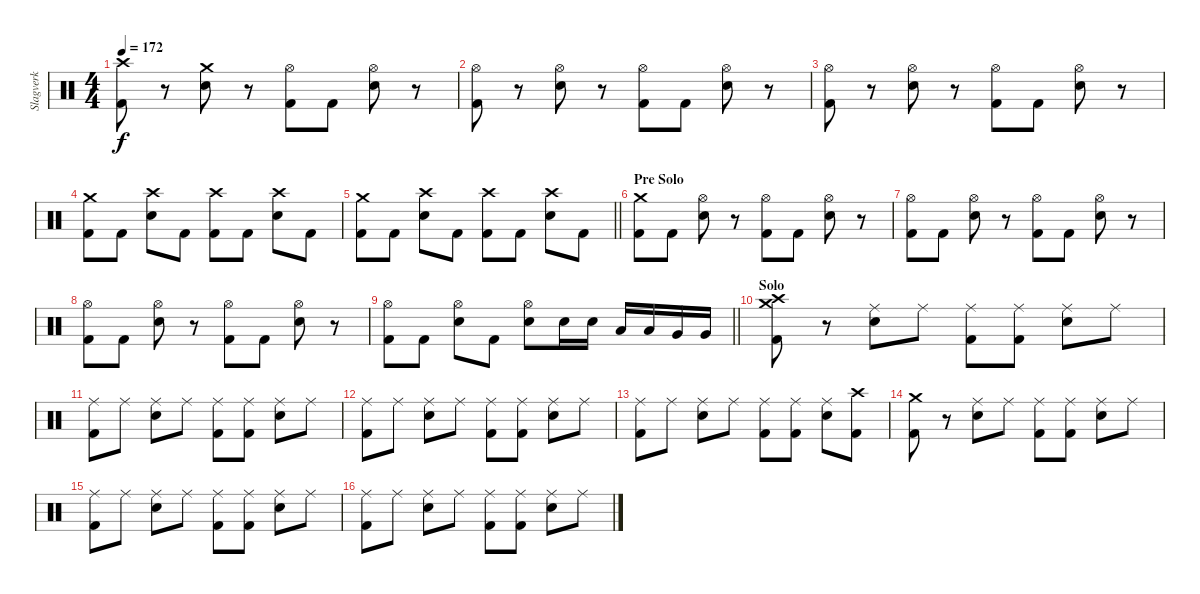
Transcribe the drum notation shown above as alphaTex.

\track ("Slagverk" "Slagverk") {instrument percussion}
\staff {score}
\articulation defaults
\ts (4 4)
\tempo 172
\clef neutral
\ks c
("Crash high (hit)" "Kick (hit) 2").8{dy f} r.8 ("Crash medium (hit)" "Electric Snare (hit)").8 r.8 ("Hi-Hat (open)" "Kick (hit) 2").8 "Kick (hit) 2".8 ("Hi-Hat (open)" "Electric Snare (hit)").8 r.8 |
("Hi-Hat (open)" "Kick (hit) 2").8 r.8 ("Hi-Hat (open)" "Electric Snare (hit)").8 r.8 ("Hi-Hat (open)" "Kick (hit) 2").8 "Kick (hit) 2".8 ("Hi-Hat (open)" "Electric Snare (hit)").8 r.8 |
("Hi-Hat (open)" "Kick (hit) 2").8 r.8 ("Hi-Hat (open)" "Electric Snare (hit)").8 r.8 ("Hi-Hat (open)" "Kick (hit) 2").8 "Kick (hit) 2".8 ("Hi-Hat (open)" "Electric Snare (hit)").8 r.8 |
("Crash medium (hit)" "Kick (hit) 2").8 "Kick (hit) 2".8 ("Crash high (hit)" "Electric Snare (hit)").8 "Kick (hit) 2".8 ("Crash high (hit)" "Kick (hit) 2").8 "Kick (hit) 2".8 ("Crash high (hit)" "Electric Snare (hit)").8 "Kick (hit) 2".8 |
\barLineRight lightlight
("Crash medium (hit)" "Kick (hit) 2").8 "Kick (hit) 2".8 ("Crash high (hit)" "Electric Snare (hit)").8 "Kick (hit) 2".8 ("Crash high (hit)" "Kick (hit) 2").8 "Kick (hit) 2".8 ("Crash high (hit)" "Electric Snare (hit)").8 "Kick (hit) 2".8 |
\section ("" "Pre Solo")
("Crash medium (hit)" "Kick (hit) 2").8 "Kick (hit) 2".8 ("Hi-Hat (open)" "Electric Snare (hit)").8 r.8 ("Hi-Hat (open)" "Kick (hit) 2").8 "Kick (hit) 2".8 ("Hi-Hat (open)" "Electric Snare (hit)").8 r.8 |
("Hi-Hat (open)" "Kick (hit) 2").8 "Kick (hit) 2".8 ("Hi-Hat (open)" "Electric Snare (hit)").8 r.8 ("Hi-Hat (open)" "Kick (hit) 2").8 "Kick (hit) 2".8 ("Hi-Hat (open)" "Electric Snare (hit)").8 r.8 |
("Hi-Hat (open)" "Kick (hit) 2").8 "Kick (hit) 2".8 ("Hi-Hat (open)" "Electric Snare (hit)").8 r.8 ("Hi-Hat (open)" "Kick (hit) 2").8 "Kick (hit) 2".8 ("Hi-Hat (open)" "Electric Snare (hit)").8 r.8 |
\barLineRight lightlight
("Hi-Hat (open)" "Kick (hit) 2").8 "Kick (hit) 2".8 ("Hi-Hat (open)" "Electric Snare (hit)").8 "Kick (hit) 2".8 ("Hi-Hat (open)" "Electric Snare (hit)").8 "Electric Snare (hit)".16 "Electric Snare (hit)".16 "Low Tom (hit)".16 "Low Tom (hit)".16 "Very Low Tom (hit)".16 "Very Low Tom (hit)".16 |
\section ("" "Solo")
("Crash high (hit)" "Kick (hit) 2" "Crash medium (hit)").8 r.8 ("Ride (middle)" "Electric Snare (hit)").8 "Ride (middle)".8 ("Ride (middle)" "Kick (hit) 2").8 ("Ride (middle)" "Kick (hit) 2").8 ("Ride (middle)" "Electric Snare (hit)").8 "Ride (middle)".8 |
("Ride (middle)" "Kick (hit) 2").8 "Ride (middle)".8 ("Ride (middle)" "Electric Snare (hit)").8 "Ride (middle)".8 ("Ride (middle)" "Kick (hit) 2").8 ("Ride (middle)" "Kick (hit) 2").8 ("Ride (middle)" "Electric Snare (hit)").8 "Ride (middle)".8 |
("Ride (middle)" "Kick (hit) 2").8 "Ride (middle)".8 ("Ride (middle)" "Electric Snare (hit)").8 "Ride (middle)".8 ("Ride (middle)" "Kick (hit) 2").8 ("Ride (middle)" "Kick (hit) 2").8 ("Ride (middle)" "Electric Snare (hit)").8 "Ride (middle)".8 |
("Ride (middle)" "Kick (hit) 2").8 "Ride (middle)".8 ("Ride (middle)" "Electric Snare (hit)").8 "Ride (middle)".8 ("Ride (middle)" "Kick (hit) 2").8 ("Ride (middle)" "Kick (hit) 2").8 ("Ride (middle)" "Electric Snare (hit)").8 ("Crash high (hit)" "Kick (hit) 2").8 |
("Crash medium (hit)" "Kick (hit) 2").8 r.8 ("Ride (middle)" "Electric Snare (hit)").8 "Ride (middle)".8 ("Ride (middle)" "Kick (hit) 2").8 ("Ride (middle)" "Kick (hit) 2").8 ("Ride (middle)" "Electric Snare (hit)").8 "Ride (middle)".8 |
("Ride (middle)" "Kick (hit) 2").8 "Ride (middle)".8 ("Ride (middle)" "Electric Snare (hit)").8 "Ride (middle)".8 ("Ride (middle)" "Kick (hit) 2").8 ("Ride (middle)" "Kick (hit) 2").8 ("Ride (middle)" "Electric Snare (hit)").8 "Ride (middle)".8 |
("Ride (middle)" "Kick (hit) 2").8 "Ride (middle)".8 ("Ride (middle)" "Electric Snare (hit)").8 "Ride (middle)".8 ("Ride (middle)" "Kick (hit) 2").8 ("Ride (middle)" "Kick (hit) 2").8 ("Ride (middle)" "Electric Snare (hit)").8 "Ride (middle)".8
